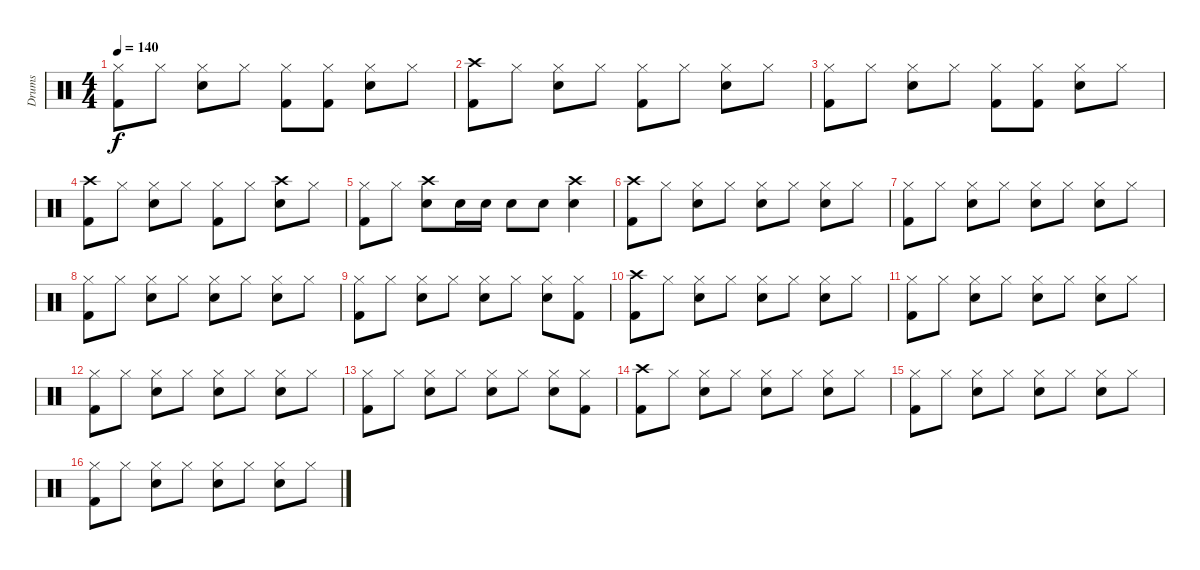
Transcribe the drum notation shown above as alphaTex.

\track ("Drums" "Drums") {instrument percussion}
\staff {score}
\articulation defaults
\ts (4 4)
\tempo 140
\clef neutral
\ks c
("Hi-Hat (closed)" "Kick (hit) 2").8{dy f} "Hi-Hat (closed)".8 ("Hi-Hat (closed)" "Snare (hit) 2").8 "Hi-Hat (closed)".8 ("Hi-Hat (closed)" "Kick (hit) 2").8 ("Hi-Hat (closed)" "Kick (hit) 2").8 ("Hi-Hat (closed)" "Snare (hit) 2").8 "Hi-Hat (closed)".8 |
("Crash high (hit)" "Kick (hit) 2").8 "Hi-Hat (closed)".8 ("Hi-Hat (closed)" "Snare (hit) 2").8 "Hi-Hat (closed)".8 ("Hi-Hat (closed)" "Kick (hit) 2").8 "Hi-Hat (closed)".8 ("Hi-Hat (closed)" "Snare (hit) 2").8 "Hi-Hat (closed)".8 |
("Hi-Hat (closed)" "Kick (hit) 2").8 "Hi-Hat (closed)".8 ("Hi-Hat (closed)" "Snare (hit) 2").8 "Hi-Hat (closed)".8 ("Hi-Hat (closed)" "Kick (hit) 2").8 ("Hi-Hat (closed)" "Kick (hit) 2").8 ("Hi-Hat (closed)" "Snare (hit) 2").8 "Hi-Hat (closed)".8 |
("Crash high (hit)" "Kick (hit) 2").8 "Hi-Hat (closed)".8 ("Hi-Hat (closed)" "Snare (hit) 2").8 "Hi-Hat (closed)".8 ("Hi-Hat (closed)" "Kick (hit) 2").8 "Hi-Hat (closed)".8 ("Crash high (hit)" "Snare (hit) 2").8 "Hi-Hat (closed)".8 |
("Hi-Hat (closed)" "Kick (hit) 2").8 "Hi-Hat (closed)".8 ("Crash high (hit)" "Snare (hit) 2").8 "Snare (hit) 2".16 "Snare (hit) 2".16 "Snare (hit) 2".8 "Snare (hit) 2".8 ("Crash high (hit)" "Snare (hit) 2").4 |
("Crash high (hit)" "Kick (hit) 2").8 "Hi-Hat (closed)".8 ("Hi-Hat (closed)" "Snare (hit) 2").8 "Hi-Hat (closed)".8 ("Hi-Hat (closed)" "Snare (hit) 2").8 "Hi-Hat (closed)".8 ("Hi-Hat (closed)" "Snare (hit) 2").8 "Hi-Hat (closed)".8 |
("Hi-Hat (closed)" "Kick (hit) 2").8 "Hi-Hat (closed)".8 ("Hi-Hat (closed)" "Snare (hit) 2").8 "Hi-Hat (closed)".8 ("Hi-Hat (closed)" "Snare (hit) 2").8 "Hi-Hat (closed)".8 ("Hi-Hat (closed)" "Snare (hit) 2").8 "Hi-Hat (closed)".8 |
("Hi-Hat (closed)" "Kick (hit) 2").8 "Hi-Hat (closed)".8 ("Hi-Hat (closed)" "Snare (hit) 2").8 "Hi-Hat (closed)".8 ("Hi-Hat (closed)" "Snare (hit) 2").8 "Hi-Hat (closed)".8 ("Hi-Hat (closed)" "Snare (hit) 2").8 "Hi-Hat (closed)".8 |
("Hi-Hat (closed)" "Kick (hit) 2").8 "Hi-Hat (closed)".8 ("Hi-Hat (closed)" "Snare (hit) 2").8 "Hi-Hat (closed)".8 ("Hi-Hat (closed)" "Snare (hit) 2").8 "Hi-Hat (closed)".8 ("Hi-Hat (closed)" "Snare (hit) 2").8 ("Hi-Hat (closed)" "Kick (hit) 2").8 |
("Crash high (hit)" "Kick (hit) 2").8 "Hi-Hat (closed)".8 ("Hi-Hat (closed)" "Snare (hit) 2").8 "Hi-Hat (closed)".8 ("Hi-Hat (closed)" "Snare (hit) 2").8 "Hi-Hat (closed)".8 ("Hi-Hat (closed)" "Snare (hit) 2").8 "Hi-Hat (closed)".8 |
("Hi-Hat (closed)" "Kick (hit) 2").8 "Hi-Hat (closed)".8 ("Hi-Hat (closed)" "Snare (hit) 2").8 "Hi-Hat (closed)".8 ("Hi-Hat (closed)" "Snare (hit) 2").8 "Hi-Hat (closed)".8 ("Hi-Hat (closed)" "Snare (hit) 2").8 "Hi-Hat (closed)".8 |
("Hi-Hat (closed)" "Kick (hit) 2").8 "Hi-Hat (closed)".8 ("Hi-Hat (closed)" "Snare (hit) 2").8 "Hi-Hat (closed)".8 ("Hi-Hat (closed)" "Snare (hit) 2").8 "Hi-Hat (closed)".8 ("Hi-Hat (closed)" "Snare (hit) 2").8 "Hi-Hat (closed)".8 |
("Hi-Hat (closed)" "Kick (hit) 2").8 "Hi-Hat (closed)".8 ("Hi-Hat (closed)" "Snare (hit) 2").8 "Hi-Hat (closed)".8 ("Hi-Hat (closed)" "Snare (hit) 2").8 "Hi-Hat (closed)".8 ("Hi-Hat (closed)" "Snare (hit) 2").8 ("Hi-Hat (closed)" "Kick (hit) 2").8 |
("Crash high (hit)" "Kick (hit) 2").8 "Hi-Hat (closed)".8 ("Hi-Hat (closed)" "Snare (hit) 2").8 "Hi-Hat (closed)".8 ("Hi-Hat (closed)" "Snare (hit) 2").8 "Hi-Hat (closed)".8 ("Hi-Hat (closed)" "Snare (hit) 2").8 "Hi-Hat (closed)".8 |
("Hi-Hat (closed)" "Kick (hit) 2").8 "Hi-Hat (closed)".8 ("Hi-Hat (closed)" "Snare (hit) 2").8 "Hi-Hat (closed)".8 ("Hi-Hat (closed)" "Snare (hit) 2").8 "Hi-Hat (closed)".8 ("Hi-Hat (closed)" "Snare (hit) 2").8 "Hi-Hat (closed)".8 |
("Hi-Hat (closed)" "Kick (hit) 2").8 "Hi-Hat (closed)".8 ("Hi-Hat (closed)" "Snare (hit) 2").8 "Hi-Hat (closed)".8 ("Hi-Hat (closed)" "Snare (hit) 2").8 "Hi-Hat (closed)".8 ("Hi-Hat (closed)" "Snare (hit) 2").8 "Hi-Hat (closed)".8
